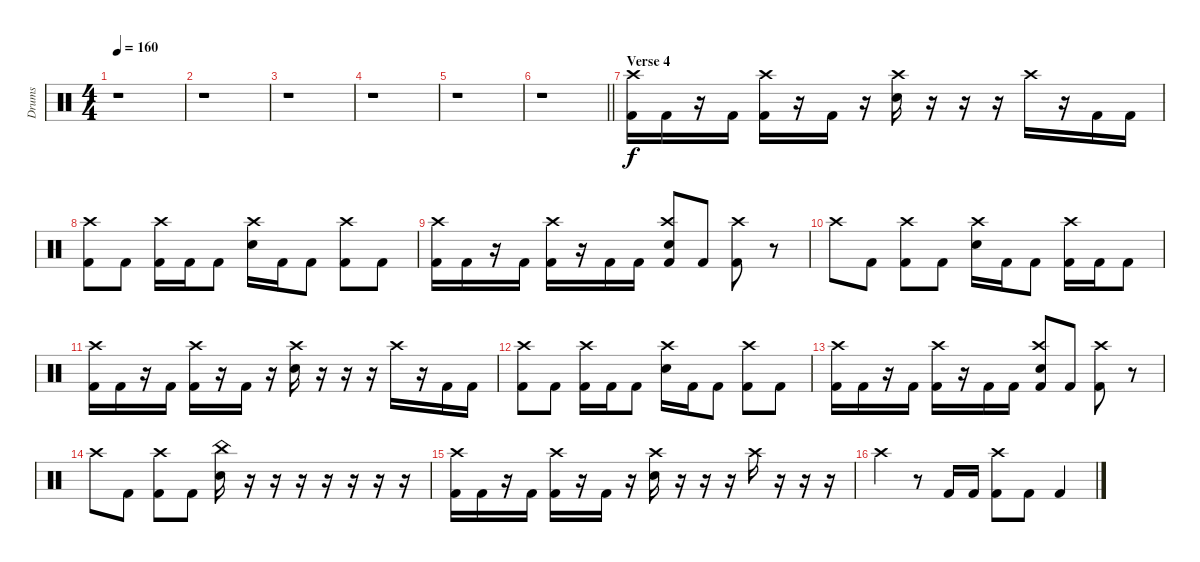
\track ("Drums" "Drums") {instrument percussion}
\staff {score}
\articulation defaults
\ts (4 4)
\tempo 160
\clef neutral
\ks c
r.1{dy f} |
r.1 |
r.1 |
r.1 |
r.1 |
\barLineRight lightlight
r.1 |
\section ("" "Verse 4")
("Kick (hit) 2" "Crash high (hit)").16 "Kick (hit) 2".16 r.16 "Kick (hit) 2".16 ("Kick (hit) 2" "Crash high (hit)").16 r.16 "Kick (hit) 2".16 r.16 ("Electric Snare (hit)" "Crash high (hit)").16 r.16 r.16 r.16 "Crash high (hit)".16 r.16 "Kick (hit) 2".16 "Kick (hit) 2".16 |
("Crash high (hit)" "Kick (hit) 2").8 "Kick (hit) 2".8 ("Kick (hit) 2" "Crash high (hit)").16 "Kick (hit) 2".16 "Kick (hit) 2".8 ("Crash high (hit)" "Electric Snare (hit)").16 "Kick (hit) 2".16 "Kick (hit) 2".8 ("Crash high (hit)" "Kick (hit) 2").8 "Kick (hit) 2".8 |
("Kick (hit) 2" "Crash high (hit)").16 "Kick (hit) 2".16 r.16 "Kick (hit) 2".16 ("Kick (hit) 2" "Crash high (hit)").16 r.16 "Kick (hit) 2".16 "Kick (hit) 2".16 ("Kick (hit) 2" "Crash high (hit)" "Electric Snare (hit)").8 "Kick (hit) 2".8 ("Kick (hit) 2" "Crash high (hit)").8 r.8 |
"Crash high (hit)".8 "Kick (hit) 2".8 ("Kick (hit) 2" "Crash high (hit)").8 "Kick (hit) 2".8 ("Crash high (hit)" "Electric Snare (hit)").16 "Kick (hit) 2".16 "Kick (hit) 2".8 ("Crash high (hit)" "Kick (hit) 2").16 "Kick (hit) 2".16 "Kick (hit) 2".8 |
("Kick (hit) 2" "Crash high (hit)").16 "Kick (hit) 2".16 r.16 "Kick (hit) 2".16 ("Kick (hit) 2" "Crash high (hit)").16 r.16 "Kick (hit) 2".16 r.16 ("Electric Snare (hit)" "Crash high (hit)").16 r.16 r.16 r.16 "Crash high (hit)".16 r.16 "Kick (hit) 2".16 "Kick (hit) 2".16 |
("Crash high (hit)" "Kick (hit) 2").8 "Kick (hit) 2".8 ("Kick (hit) 2" "Crash high (hit)").16 "Kick (hit) 2".16 "Kick (hit) 2".8 ("Crash high (hit)" "Electric Snare (hit)").16 "Kick (hit) 2".16 "Kick (hit) 2".8 ("Crash high (hit)" "Kick (hit) 2").8 "Kick (hit) 2".8 |
("Kick (hit) 2" "Crash high (hit)").16 "Kick (hit) 2".16 r.16 "Kick (hit) 2".16 ("Kick (hit) 2" "Crash high (hit)").16 r.16 "Kick (hit) 2".16 "Kick (hit) 2".16 ("Kick (hit) 2" "Crash high (hit)" "Electric Snare (hit)").8 "Kick (hit) 2".8 ("Kick (hit) 2" "Crash high (hit)").8 r.8 |
"Crash high (hit)".8 "Kick (hit) 2".8 ("Kick (hit) 2" "Crash high (hit)").8 "Kick (hit) 2".8 ("China (hit)" "Electric Snare (hit)").16 r.16 r.16 r.16 r.16 r.16 r.16 r.16 |
("Kick (hit) 2" "Crash high (hit)").16 "Kick (hit) 2".16 r.16 "Kick (hit) 2".16 ("Kick (hit) 2" "Crash high (hit)").16 r.16 "Kick (hit) 2".16 r.16 ("Electric Snare (hit)" "Crash high (hit)").16 r.16 r.16 r.16 "Crash high (hit)".16 r.16 r.16 r.16 |
"Crash high (hit)".4 r.8 "Kick (hit) 2".16 "Kick (hit) 2".16 ("Crash high (hit)" "Kick (hit) 2").8 "Kick (hit) 2".8 "Kick (hit) 2".4
